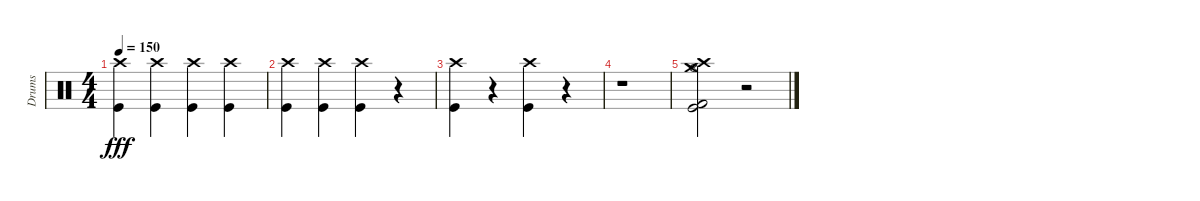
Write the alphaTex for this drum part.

\track ("Drums" "Drums") {instrument percussion}
\staff {score}
\articulation defaults
\ts (4 4)
\tempo 150
\clef neutral
\ks c
("Kick (hit)" "Crash high (hit)").4{dy fff} ("Kick (hit)" "Crash high (hit)").4 ("Kick (hit)" "Crash high (hit)").4 ("Kick (hit)" "Crash high (hit)").4 |
("Kick (hit)" "Crash high (hit)").4 ("Kick (hit)" "Crash high (hit)").4 ("Kick (hit)" "Crash high (hit)").4 r.4 |
("Kick (hit)" "Crash high (hit)").4 r.4 ("Kick (hit)" "Crash high (hit)").4 r.4 |
r.1 |
("Kick (hit) 2" "Hi-Hat (open)" "Crash medium (hit)" "Kick (hit)" "Crash high (hit)").2 r.2
